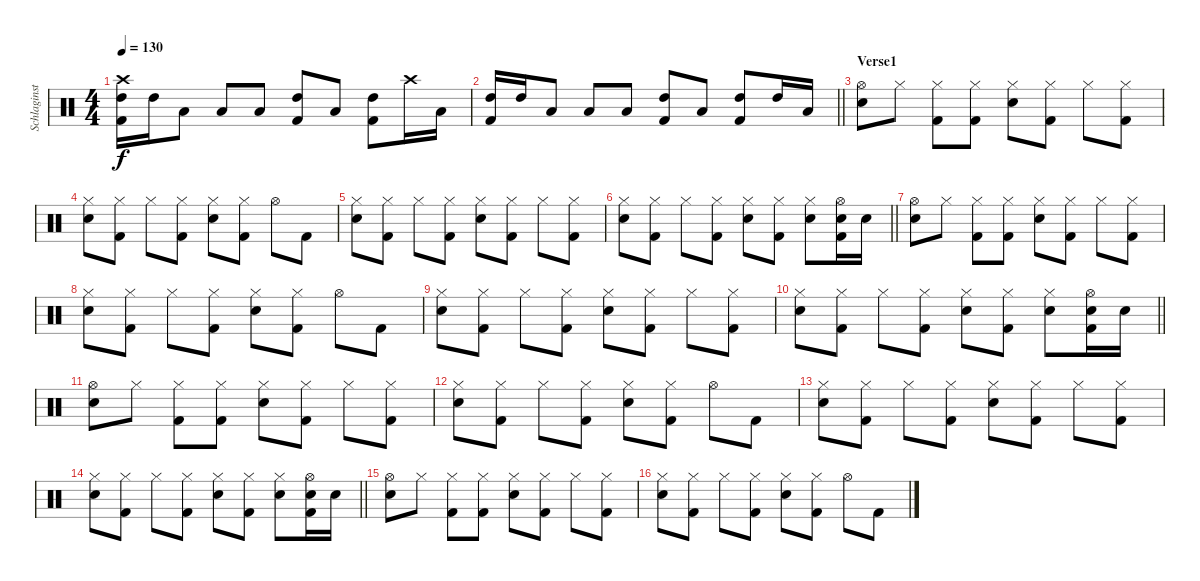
\track ("Schlaginstrumente - Auswahl" "Schlaginst") {instrument percussion}
\staff {score}
\articulation defaults
\ts (4 4)
\tempo 130
\clef neutral
\ks c
("Crash high (hit)" "High Tom (hit)" "Kick (hit) 2").16{dy f} "High Tom (hit)".16 "Low Tom (hit)".8 "Low Tom (hit)".8 "Low Tom (hit)".8 ("High Tom (hit)" "Kick (hit) 2").8 "Low Tom (hit)".8 ("High Tom (hit)" "Kick (hit) 2").8 "Crash high (hit)".16 "Low Tom (hit)".16 |
\barLineRight lightlight
("High Tom (hit)" "Kick (hit) 2").16 "High Tom (hit)".16 "Low Tom (hit)".8 "Low Tom (hit)".8 "Low Tom (hit)".8 ("High Tom (hit)" "Kick (hit) 2").8 "Low Tom (hit)".8 ("High Tom (hit)" "Kick (hit) 2").8 "High Tom (hit)".16 "Low Tom (hit)".16 |
\section ("" "Verse1")
("Hi-Hat (open)" "Snare (hit) 2").8 "Hi-Hat (closed)".8 ("Hi-Hat (closed)" "Kick (hit) 2").8 ("Hi-Hat (closed)" "Kick (hit) 2").8 ("Hi-Hat (closed)" "Snare (hit) 2").8 ("Hi-Hat (closed)" "Kick (hit) 2").8 "Hi-Hat (closed)".8 ("Hi-Hat (closed)" "Kick (hit) 2").8 |
("Hi-Hat (closed)" "Snare (hit) 2").8 ("Hi-Hat (closed)" "Kick (hit) 2").8 "Hi-Hat (closed)".8 ("Hi-Hat (closed)" "Kick (hit) 2").8 ("Hi-Hat (closed)" "Snare (hit) 2").8 ("Hi-Hat (closed)" "Kick (hit) 2").8 "Hi-Hat (open)".8 "Kick (hit) 2".8 |
("Hi-Hat (closed)" "Snare (hit) 2").8 ("Hi-Hat (closed)" "Kick (hit) 2").8 "Hi-Hat (closed)".8 ("Hi-Hat (closed)" "Kick (hit) 2").8 ("Hi-Hat (closed)" "Snare (hit) 2").8 ("Hi-Hat (closed)" "Kick (hit) 2").8 "Hi-Hat (closed)".8 ("Hi-Hat (closed)" "Kick (hit) 2").8 |
\barLineRight lightlight
("Hi-Hat (closed)" "Snare (hit) 2").8 ("Hi-Hat (closed)" "Kick (hit) 2").8 "Hi-Hat (closed)".8 ("Hi-Hat (closed)" "Kick (hit) 2").8 ("Hi-Hat (closed)" "Snare (hit) 2").8 ("Hi-Hat (closed)" "Kick (hit) 2").8 ("Hi-Hat (closed)" "Snare (hit) 2").8 ("Hi-Hat (open)" "Snare (hit) 2" "Kick (hit) 2").16 "Snare (hit) 2".16 |
("Hi-Hat (open)" "Snare (hit) 2").8 "Hi-Hat (closed)".8 ("Hi-Hat (closed)" "Kick (hit) 2").8 ("Hi-Hat (closed)" "Kick (hit) 2").8 ("Hi-Hat (closed)" "Snare (hit) 2").8 ("Hi-Hat (closed)" "Kick (hit) 2").8 "Hi-Hat (closed)".8 ("Hi-Hat (closed)" "Kick (hit) 2").8 |
("Hi-Hat (closed)" "Snare (hit) 2").8 ("Hi-Hat (closed)" "Kick (hit) 2").8 "Hi-Hat (closed)".8 ("Hi-Hat (closed)" "Kick (hit) 2").8 ("Hi-Hat (closed)" "Snare (hit) 2").8 ("Hi-Hat (closed)" "Kick (hit) 2").8 "Hi-Hat (open)".8 "Kick (hit) 2".8 |
("Hi-Hat (closed)" "Snare (hit) 2").8 ("Hi-Hat (closed)" "Kick (hit) 2").8 "Hi-Hat (closed)".8 ("Hi-Hat (closed)" "Kick (hit) 2").8 ("Hi-Hat (closed)" "Snare (hit) 2").8 ("Hi-Hat (closed)" "Kick (hit) 2").8 "Hi-Hat (closed)".8 ("Hi-Hat (closed)" "Kick (hit) 2").8 |
\barLineRight lightlight
("Hi-Hat (closed)" "Snare (hit) 2").8 ("Hi-Hat (closed)" "Kick (hit) 2").8 "Hi-Hat (closed)".8 ("Hi-Hat (closed)" "Kick (hit) 2").8 ("Hi-Hat (closed)" "Snare (hit) 2").8 ("Hi-Hat (closed)" "Kick (hit) 2").8 ("Hi-Hat (closed)" "Snare (hit) 2").8 ("Hi-Hat (open)" "Snare (hit) 2" "Kick (hit) 2").16 "Snare (hit) 2".16 |
("Hi-Hat (open)" "Snare (hit) 2").8 "Hi-Hat (closed)".8 ("Hi-Hat (closed)" "Kick (hit) 2").8 ("Hi-Hat (closed)" "Kick (hit) 2").8 ("Hi-Hat (closed)" "Snare (hit) 2").8 ("Hi-Hat (closed)" "Kick (hit) 2").8 "Hi-Hat (closed)".8 ("Hi-Hat (closed)" "Kick (hit) 2").8 |
("Hi-Hat (closed)" "Snare (hit) 2").8 ("Hi-Hat (closed)" "Kick (hit) 2").8 "Hi-Hat (closed)".8 ("Hi-Hat (closed)" "Kick (hit) 2").8 ("Hi-Hat (closed)" "Snare (hit) 2").8 ("Hi-Hat (closed)" "Kick (hit) 2").8 "Hi-Hat (open)".8 "Kick (hit) 2".8 |
("Hi-Hat (closed)" "Snare (hit) 2").8 ("Hi-Hat (closed)" "Kick (hit) 2").8 "Hi-Hat (closed)".8 ("Hi-Hat (closed)" "Kick (hit) 2").8 ("Hi-Hat (closed)" "Snare (hit) 2").8 ("Hi-Hat (closed)" "Kick (hit) 2").8 "Hi-Hat (closed)".8 ("Hi-Hat (closed)" "Kick (hit) 2").8 |
\barLineRight lightlight
("Hi-Hat (closed)" "Snare (hit) 2").8 ("Hi-Hat (closed)" "Kick (hit) 2").8 "Hi-Hat (closed)".8 ("Hi-Hat (closed)" "Kick (hit) 2").8 ("Hi-Hat (closed)" "Snare (hit) 2").8 ("Hi-Hat (closed)" "Kick (hit) 2").8 ("Hi-Hat (closed)" "Snare (hit) 2").8 ("Hi-Hat (open)" "Snare (hit) 2" "Kick (hit) 2").16 "Snare (hit) 2".16 |
("Hi-Hat (open)" "Snare (hit) 2").8 "Hi-Hat (closed)".8 ("Hi-Hat (closed)" "Kick (hit) 2").8 ("Hi-Hat (closed)" "Kick (hit) 2").8 ("Hi-Hat (closed)" "Snare (hit) 2").8 ("Hi-Hat (closed)" "Kick (hit) 2").8 "Hi-Hat (closed)".8 ("Hi-Hat (closed)" "Kick (hit) 2").8 |
("Hi-Hat (closed)" "Snare (hit) 2").8 ("Hi-Hat (closed)" "Kick (hit) 2").8 "Hi-Hat (closed)".8 ("Hi-Hat (closed)" "Kick (hit) 2").8 ("Hi-Hat (closed)" "Snare (hit) 2").8 ("Hi-Hat (closed)" "Kick (hit) 2").8 "Hi-Hat (open)".8 "Kick (hit) 2".8
